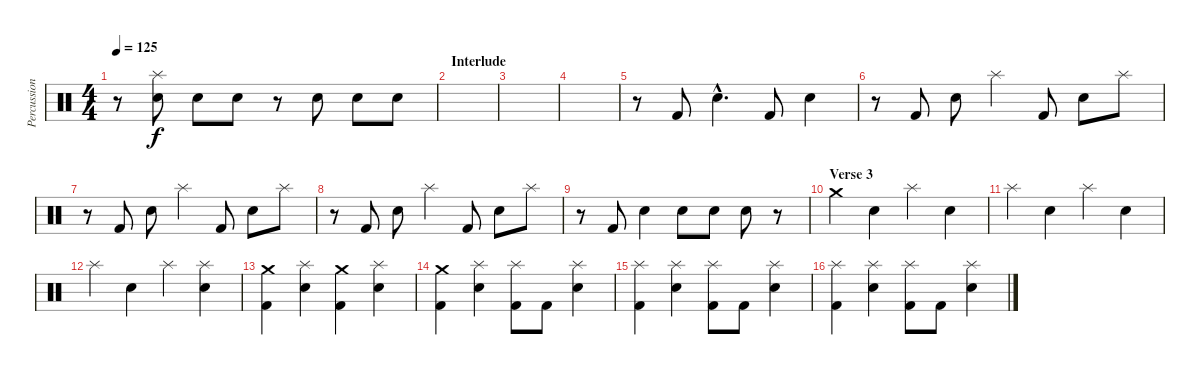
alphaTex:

\track ("Percussion" "Percussion") {instrument percussion}
\staff {score}
\articulation defaults
\ts (4 4)
\tempo 125
\clef neutral
\ks c
r.8{dy f} ("Splash (hit)" "Snare (hit) 2").8 "Snare (hit) 2".8 "Snare (hit) 2".8 r.8 "Snare (hit) 2".8 "Snare (hit) 2".8 "Snare (hit) 2".8 |
\section ("" "Interlude")
|
|
|
r.8{volume 5} "Kick (hit) 2".8 "Snare (hit) 2"{hac}.4{d} "Kick (hit) 2".8 "Snare (hit) 2".4 |
r.8 "Kick (hit) 2".8 "Snare (hit) 2".8 "Splash (hit)".4 "Kick (hit) 2".8 "Snare (hit) 2".8 "Splash (hit)".8 |
r.8 "Kick (hit) 2".8 "Snare (hit) 2".8 "Splash (hit)".4 "Kick (hit) 2".8 "Snare (hit) 2".8 "Splash (hit)".8 |
r.8 "Kick (hit) 2".8 "Snare (hit) 2".8 "Splash (hit)".4 "Kick (hit) 2".8 "Snare (hit) 2".8 "Splash (hit)".8 |
r.8 "Kick (hit) 2".8 "Snare (hit) 2".4 "Snare (hit) 2".8{volume 13} "Snare (hit) 2".8 "Snare (hit) 2".8 r.8 |
\section ("" "Verse 3")
"Crash medium (hit)".4 "Snare (hit) 2".4 "Splash (hit)".4 "Snare (hit) 2".4 |
"Splash (hit)".4 "Snare (hit) 2".4 "Splash (hit)".4 "Snare (hit) 2".4 |
"Splash (hit)".4 "Snare (hit) 2".4 "Splash (hit)".4 ("Splash (hit)" "Snare (hit) 2").4 |
("Crash medium (hit)" "Kick (hit) 2").4 ("Splash (hit)" "Snare (hit) 2").4 ("Crash medium (hit)" "Kick (hit) 2").4 ("Splash (hit)" "Snare (hit) 2").4 |
("Crash medium (hit)" "Kick (hit) 2").4 ("Splash (hit)" "Snare (hit) 2").4 ("Splash (hit)" "Kick (hit) 2").8 "Kick (hit) 2".8 ("Splash (hit)" "Snare (hit) 2").4 |
("Splash (hit)" "Kick (hit) 2").4 ("Splash (hit)" "Snare (hit) 2").4 ("Splash (hit)" "Kick (hit) 2").8 "Kick (hit) 2".8 ("Splash (hit)" "Snare (hit) 2").4 |
("Splash (hit)" "Kick (hit) 2").4 ("Splash (hit)" "Snare (hit) 2").4 ("Splash (hit)" "Kick (hit) 2").8 "Kick (hit) 2".8 ("Splash (hit)" "Snare (hit) 2").4
